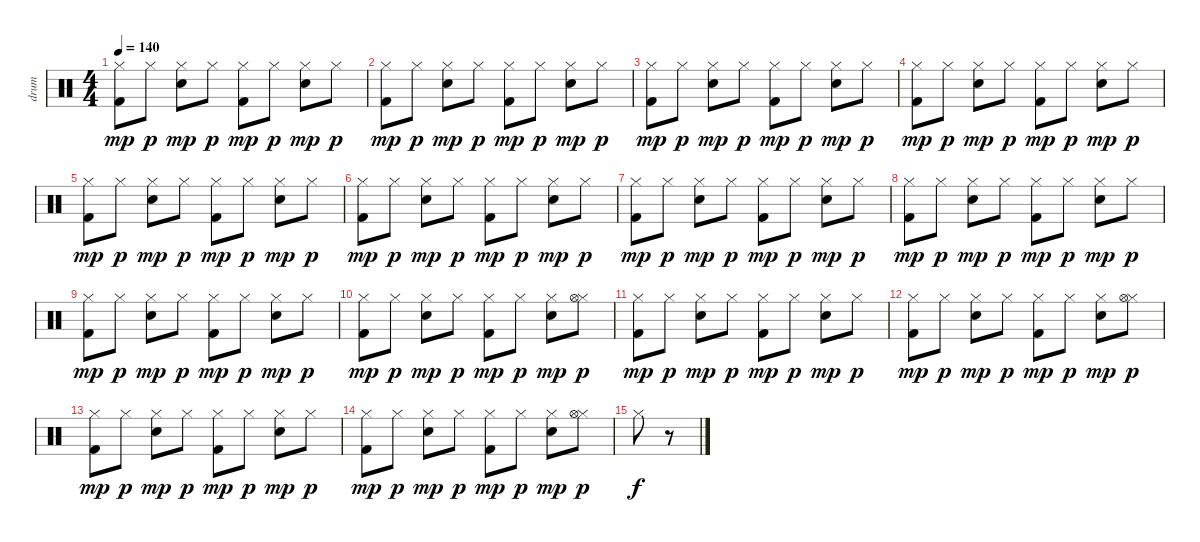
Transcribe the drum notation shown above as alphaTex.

\track ("drum" "drum") {instrument percussion}
\staff {score}
\articulation defaults
\ts (4 4)
\tempo 140
\clef neutral
\ks c
("Hi-Hat (closed)" "Kick (hit) 2").8{dy mp} "Hi-Hat (closed)".8{dy p} ("Hi-Hat (closed)" "Snare (hit) 2").8{dy mp} "Hi-Hat (closed)".8{dy p} ("Hi-Hat (closed)" "Kick (hit) 2").8{dy mp} "Hi-Hat (closed)".8{dy p} ("Hi-Hat (closed)" "Snare (hit) 2").8{dy mp} "Hi-Hat (closed)".8{dy p} |
("Hi-Hat (closed)" "Kick (hit) 2").8{dy mp} "Hi-Hat (closed)".8{dy p} ("Hi-Hat (closed)" "Snare (hit) 2").8{dy mp} "Hi-Hat (closed)".8{dy p} ("Hi-Hat (closed)" "Kick (hit) 2").8{dy mp} "Hi-Hat (closed)".8{dy p} ("Hi-Hat (closed)" "Snare (hit) 2").8{dy mp} "Hi-Hat (closed)".8{dy p} |
("Hi-Hat (closed)" "Kick (hit) 2").8{dy mp} "Hi-Hat (closed)".8{dy p} ("Hi-Hat (closed)" "Snare (hit) 2").8{dy mp} "Hi-Hat (closed)".8{dy p} ("Hi-Hat (closed)" "Kick (hit) 2").8{dy mp} "Hi-Hat (closed)".8{dy p} ("Hi-Hat (closed)" "Snare (hit) 2").8{dy mp} "Hi-Hat (closed)".8{dy p} |
("Hi-Hat (closed)" "Kick (hit) 2").8{dy mp} "Hi-Hat (closed)".8{dy p} ("Hi-Hat (closed)" "Snare (hit) 2").8{dy mp} "Hi-Hat (closed)".8{dy p} ("Hi-Hat (closed)" "Kick (hit) 2").8{dy mp} "Hi-Hat (closed)".8{dy p} ("Hi-Hat (closed)" "Snare (hit) 2").8{dy mp} "Hi-Hat (closed)".8{dy p} |
("Hi-Hat (closed)" "Kick (hit) 2").8{dy mp} "Hi-Hat (closed)".8{dy p} ("Hi-Hat (closed)" "Snare (hit) 2").8{dy mp} "Hi-Hat (closed)".8{dy p} ("Hi-Hat (closed)" "Kick (hit) 2").8{dy mp} "Hi-Hat (closed)".8{dy p} ("Hi-Hat (closed)" "Snare (hit) 2").8{dy mp} "Hi-Hat (closed)".8{dy p} |
("Hi-Hat (closed)" "Kick (hit) 2").8{dy mp} "Hi-Hat (closed)".8{dy p} ("Hi-Hat (closed)" "Snare (hit) 2").8{dy mp} "Hi-Hat (closed)".8{dy p} ("Hi-Hat (closed)" "Kick (hit) 2").8{dy mp} "Hi-Hat (closed)".8{dy p} ("Hi-Hat (closed)" "Snare (hit) 2").8{dy mp} "Hi-Hat (closed)".8{dy p} |
("Hi-Hat (closed)" "Kick (hit) 2").8{dy mp} "Hi-Hat (closed)".8{dy p} ("Hi-Hat (closed)" "Snare (hit) 2").8{dy mp} "Hi-Hat (closed)".8{dy p} ("Hi-Hat (closed)" "Kick (hit) 2").8{dy mp} "Hi-Hat (closed)".8{dy p} ("Hi-Hat (closed)" "Snare (hit) 2").8{dy mp} "Hi-Hat (closed)".8{dy p} |
("Hi-Hat (closed)" "Kick (hit) 2").8{dy mp} "Hi-Hat (closed)".8{dy p} ("Hi-Hat (closed)" "Snare (hit) 2").8{dy mp} "Hi-Hat (closed)".8{dy p} ("Hi-Hat (closed)" "Kick (hit) 2").8{dy mp} "Hi-Hat (closed)".8{dy p} ("Hi-Hat (closed)" "Snare (hit) 2").8{dy mp} "Hi-Hat (closed)".8{dy p} |
("Hi-Hat (closed)" "Kick (hit) 2").8{dy mp} "Hi-Hat (closed)".8{dy p} ("Hi-Hat (closed)" "Snare (hit) 2").8{dy mp} "Hi-Hat (closed)".8{dy p} ("Hi-Hat (closed)" "Kick (hit) 2").8{dy mp} "Hi-Hat (closed)".8{dy p} ("Hi-Hat (closed)" "Snare (hit) 2").8{dy mp} "Hi-Hat (closed)".8{dy p} |
("Hi-Hat (closed)" "Kick (hit) 2").8{dy mp} "Hi-Hat (closed)".8{dy p} ("Hi-Hat (closed)" "Snare (hit) 2").8{dy mp} "Hi-Hat (closed)".8{dy p} ("Hi-Hat (closed)" "Kick (hit) 2").8{dy mp} "Hi-Hat (closed)".8{dy p} ("Hi-Hat (closed)" "Snare (hit) 2").8{dy mp} ("Hi-Hat (closed)" "Hi-Hat (open)").8{dy p} |
("Hi-Hat (closed)" "Kick (hit) 2").8{dy mp} "Hi-Hat (closed)".8{dy p} ("Hi-Hat (closed)" "Snare (hit) 2").8{dy mp} "Hi-Hat (closed)".8{dy p} ("Hi-Hat (closed)" "Kick (hit) 2").8{dy mp} "Hi-Hat (closed)".8{dy p} ("Hi-Hat (closed)" "Snare (hit) 2").8{dy mp} "Hi-Hat (closed)".8{dy p} |
("Hi-Hat (closed)" "Kick (hit) 2").8{dy mp} "Hi-Hat (closed)".8{dy p} ("Hi-Hat (closed)" "Snare (hit) 2").8{dy mp} "Hi-Hat (closed)".8{dy p} ("Hi-Hat (closed)" "Kick (hit) 2").8{dy mp} "Hi-Hat (closed)".8{dy p} ("Hi-Hat (closed)" "Snare (hit) 2").8{dy mp} ("Hi-Hat (closed)" "Hi-Hat (open)").8{dy p} |
("Hi-Hat (closed)" "Kick (hit) 2").8{dy mp} "Hi-Hat (closed)".8{dy p} ("Hi-Hat (closed)" "Snare (hit) 2").8{dy mp} "Hi-Hat (closed)".8{dy p} ("Hi-Hat (closed)" "Kick (hit) 2").8{dy mp} "Hi-Hat (closed)".8{dy p} ("Hi-Hat (closed)" "Snare (hit) 2").8{dy mp} "Hi-Hat (closed)".8{dy p} |
("Hi-Hat (closed)" "Kick (hit) 2").8{dy mp} "Hi-Hat (closed)".8{dy p} ("Hi-Hat (closed)" "Snare (hit) 2").8{dy mp} "Hi-Hat (closed)".8{dy p} ("Hi-Hat (closed)" "Kick (hit) 2").8{dy mp} "Hi-Hat (closed)".8{dy p} ("Hi-Hat (closed)" "Snare (hit) 2").8{dy mp} ("Hi-Hat (closed)" "Hi-Hat (open)").8{dy p} |
"Hi-Hat (closed)".8{dy f} r.8
